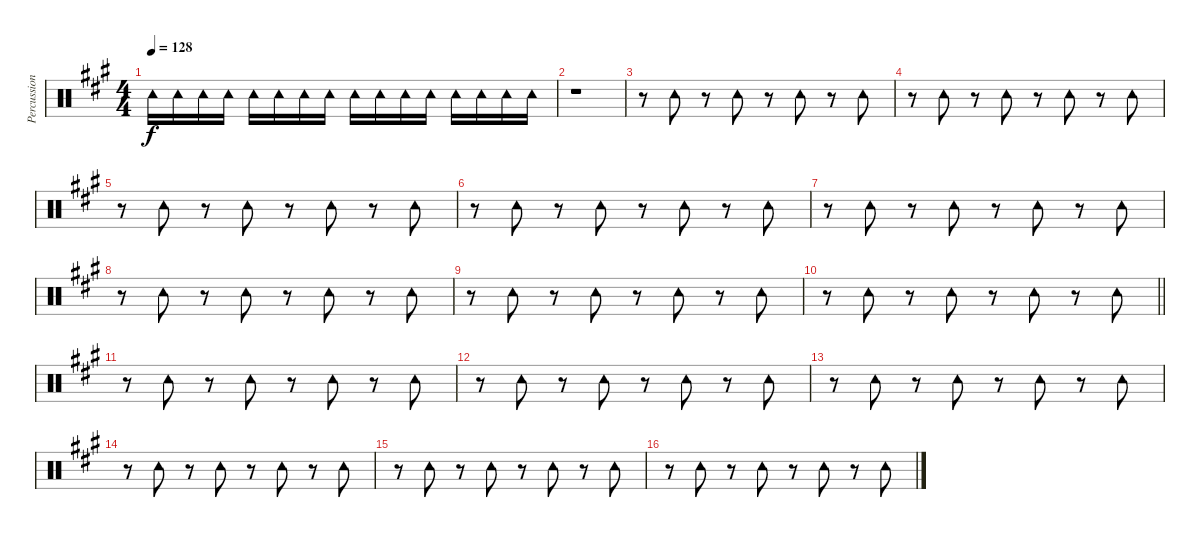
\track ("Percussion" "Percussion") {instrument percussion}
\staff {score}
\articulation defaults
\ts (4 4)
\tempo 128
\clef neutral
\ks a "Tambourine (hit)".16{dy f} "Tambourine (hit)".16 "Tambourine (hit)".16 "Tambourine (hit)".16 "Tambourine (hit)".16 "Tambourine (hit)".16 "Tambourine (hit)".16 "Tambourine (hit)".16 "Tambourine (hit)".16 "Tambourine (hit)".16 "Tambourine (hit)".16 "Tambourine (hit)".16 "Tambourine (hit)".16 "Tambourine (hit)".16 "Tambourine (hit)".16 "Tambourine (hit)".16
|
r.1 |
r.8 "Tambourine (hit)".8 r.8 "Tambourine (hit)".8 r.8 "Tambourine (hit)".8 r.8 "Tambourine (hit)".8 |
r.8 "Tambourine (hit)".8 r.8 "Tambourine (hit)".8 r.8 "Tambourine (hit)".8 r.8 "Tambourine (hit)".8 |
r.8 "Tambourine (hit)".8 r.8 "Tambourine (hit)".8 r.8 "Tambourine (hit)".8 r.8 "Tambourine (hit)".8 |
r.8 "Tambourine (hit)".8 r.8 "Tambourine (hit)".8 r.8 "Tambourine (hit)".8 r.8 "Tambourine (hit)".8 |
r.8 "Tambourine (hit)".8 r.8 "Tambourine (hit)".8 r.8 "Tambourine (hit)".8 r.8 "Tambourine (hit)".8 |
r.8 "Tambourine (hit)".8 r.8 "Tambourine (hit)".8 r.8 "Tambourine (hit)".8 r.8 "Tambourine (hit)".8 |
r.8 "Tambourine (hit)".8 r.8 "Tambourine (hit)".8 r.8 "Tambourine (hit)".8 r.8 "Tambourine (hit)".8 |
\barLineRight lightlight
r.8 "Tambourine (hit)".8 r.8 "Tambourine (hit)".8 r.8 "Tambourine (hit)".8 r.8 "Tambourine (hit)".8 |
r.8 "Tambourine (hit)".8 r.8 "Tambourine (hit)".8 r.8 "Tambourine (hit)".8 r.8 "Tambourine (hit)".8 |
r.8 "Tambourine (hit)".8 r.8 "Tambourine (hit)".8 r.8 "Tambourine (hit)".8 r.8 "Tambourine (hit)".8 |
r.8 "Tambourine (hit)".8 r.8 "Tambourine (hit)".8 r.8 "Tambourine (hit)".8 r.8 "Tambourine (hit)".8 |
r.8 "Tambourine (hit)".8 r.8 "Tambourine (hit)".8 r.8 "Tambourine (hit)".8 r.8 "Tambourine (hit)".8 |
r.8 "Tambourine (hit)".8 r.8 "Tambourine (hit)".8 r.8 "Tambourine (hit)".8 r.8 "Tambourine (hit)".8 |
r.8 "Tambourine (hit)".8 r.8 "Tambourine (hit)".8 r.8 "Tambourine (hit)".8 r.8 "Tambourine (hit)".8
